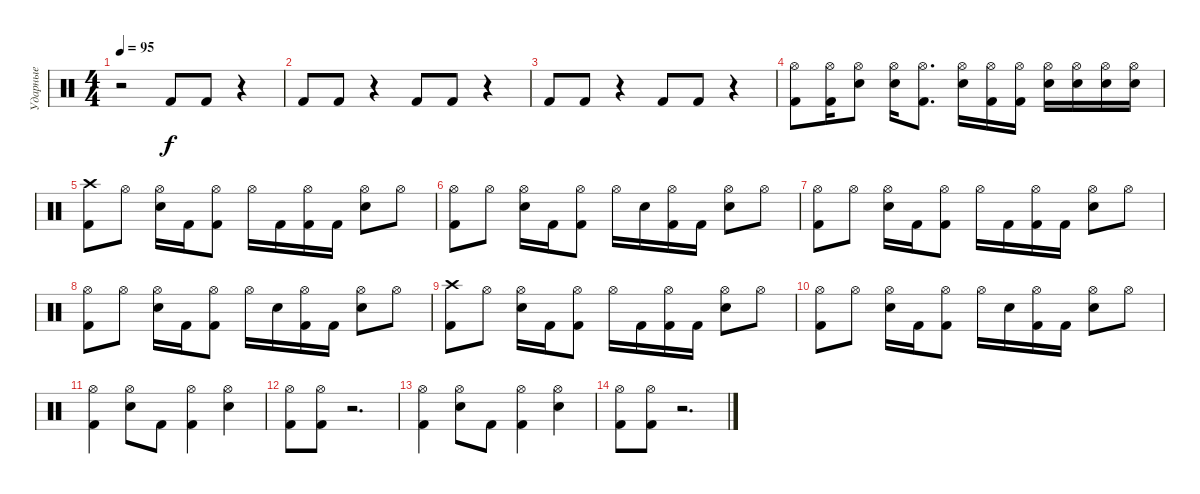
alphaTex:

\track ("Ударные" "Ударные") {instrument percussion}
\staff {score}
\articulation defaults
\ts (4 4)
\tempo 95
\clef neutral
\ks c
r.2{dy f} "Kick (hit) 2".8 "Kick (hit) 2".8 r.4 |
"Kick (hit) 2".8 "Kick (hit) 2".8 r.4 "Kick (hit) 2".8 "Kick (hit) 2".8 r.4 |
"Kick (hit) 2".8 "Kick (hit) 2".8 r.4 "Kick (hit) 2".8 "Kick (hit) 2".8 r.4 |
("Hi-Hat (open)" "Kick (hit) 2").8 ("Hi-Hat (open)" "Kick (hit) 2").16 ("Hi-Hat (open)" "Electric Snare (hit)").8 ("Hi-Hat (open)" "Electric Snare (hit)").16 ("Hi-Hat (open)" "Kick (hit) 2").8{d} ("Hi-Hat (open)" "Electric Snare (hit)").16 ("Hi-Hat (open)" "Kick (hit) 2").16 ("Hi-Hat (open)" "Kick (hit) 2").16 ("Hi-Hat (open)" "Electric Snare (hit)").16 ("Hi-Hat (open)" "Electric Snare (hit)").16 ("Hi-Hat (open)" "Electric Snare (hit)").16 ("Hi-Hat (open)" "Electric Snare (hit)").16 |
("Crash high (hit)" "Kick (hit) 2").8 "Hi-Hat (open)".8 ("Hi-Hat (open)" "Electric Snare (hit)").16 "Kick (hit) 2".16 ("Hi-Hat (open)" "Kick (hit) 2").8 "Hi-Hat (open)".16 "Kick (hit) 2".16 ("Hi-Hat (open)" "Kick (hit) 2").16 "Kick (hit) 2".16 ("Hi-Hat (open)" "Electric Snare (hit)").8 "Hi-Hat (open)".8 |
("Hi-Hat (open)" "Kick (hit) 2").8 "Hi-Hat (open)".8 ("Hi-Hat (open)" "Electric Snare (hit)").16 "Kick (hit) 2".16 ("Hi-Hat (open)" "Kick (hit) 2").8 "Hi-Hat (open)".16 "Electric Snare (hit)".16 ("Hi-Hat (open)" "Kick (hit) 2").16 "Kick (hit) 2".16 ("Hi-Hat (open)" "Electric Snare (hit)").8 "Hi-Hat (open)".8 |
("Hi-Hat (open)" "Kick (hit) 2").8 "Hi-Hat (open)".8 ("Hi-Hat (open)" "Electric Snare (hit)").16 "Kick (hit) 2".16 ("Hi-Hat (open)" "Kick (hit) 2").8 "Hi-Hat (open)".16 "Kick (hit) 2".16 ("Hi-Hat (open)" "Kick (hit) 2").16 "Kick (hit) 2".16 ("Hi-Hat (open)" "Electric Snare (hit)").8 "Hi-Hat (open)".8 |
("Hi-Hat (open)" "Kick (hit) 2").8 "Hi-Hat (open)".8 ("Hi-Hat (open)" "Electric Snare (hit)").16 "Kick (hit) 2".16 ("Hi-Hat (open)" "Kick (hit) 2").8 "Hi-Hat (open)".16 "Electric Snare (hit)".16 ("Hi-Hat (open)" "Kick (hit) 2").16 "Kick (hit) 2".16 ("Hi-Hat (open)" "Electric Snare (hit)").8 "Hi-Hat (open)".8 |
("Crash high (hit)" "Kick (hit) 2").8 "Hi-Hat (open)".8 ("Hi-Hat (open)" "Electric Snare (hit)").16 "Kick (hit) 2".16 ("Hi-Hat (open)" "Kick (hit) 2").8 "Hi-Hat (open)".16 "Kick (hit) 2".16 ("Hi-Hat (open)" "Kick (hit) 2").16 "Kick (hit) 2".16 ("Hi-Hat (open)" "Electric Snare (hit)").8 "Hi-Hat (open)".8 |
("Hi-Hat (open)" "Kick (hit) 2").8 "Hi-Hat (open)".8 ("Hi-Hat (open)" "Electric Snare (hit)").16 "Kick (hit) 2".16 ("Hi-Hat (open)" "Kick (hit) 2").8 "Hi-Hat (open)".16 "Electric Snare (hit)".16 ("Hi-Hat (open)" "Kick (hit) 2").16 "Kick (hit) 2".16 ("Hi-Hat (open)" "Electric Snare (hit)").8 "Hi-Hat (open)".8 |
("Hi-Hat (open)" "Kick (hit) 2").4 ("Hi-Hat (open)" "Electric Snare (hit)").8 "Kick (hit) 2".8 ("Hi-Hat (open)" "Kick (hit) 2").4 ("Hi-Hat (open)" "Electric Snare (hit)").4 |
("Hi-Hat (open)" "Kick (hit) 2").8 ("Hi-Hat (open)" "Kick (hit) 2").8 r.2{d} |
("Hi-Hat (open)" "Kick (hit) 2").4 ("Hi-Hat (open)" "Electric Snare (hit)").8 "Kick (hit) 2".8 ("Hi-Hat (open)" "Kick (hit) 2").4 ("Hi-Hat (open)" "Electric Snare (hit)").4 |
("Hi-Hat (open)" "Kick (hit) 2").8 ("Hi-Hat (open)" "Kick (hit) 2").8 r.2{d}
